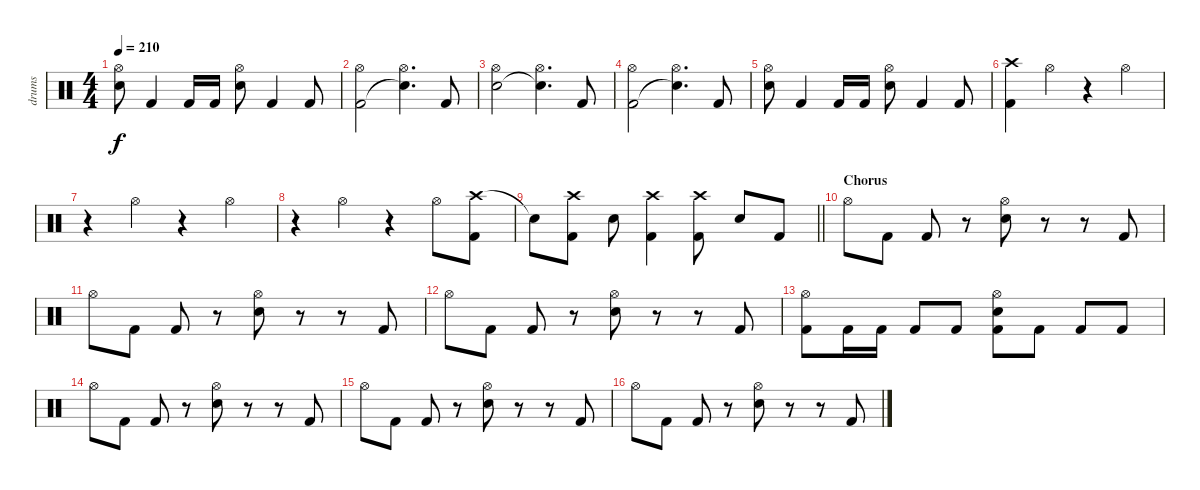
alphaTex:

\track ("drums" "drums") {solo instrument percussion}
\staff {score}
\articulation defaults
\ts (4 4)
\tempo 210
\clef neutral
\ks c
("Hi-Hat (open)" "Electric Snare (hit)").8{dy f} "Kick (hit) 2".4 "Kick (hit) 2".16 "Kick (hit) 2".16 ("Hi-Hat (open)" "Electric Snare (hit)").8 "Kick (hit) 2".4 "Kick (hit) 2".8 |
("Hi-Hat (open)" "Kick (hit) 2").2 ("Hi-Hat (open)" "Snare (hit)"{t}).4{d} "Kick (hit) 2".8 |
("Hi-Hat (open)" "Electric Snare (hit)").2 ("Hi-Hat (open)" "Snare (hit)"{t}).4{d} "Kick (hit) 2".8 |
("Hi-Hat (open)" "Kick (hit) 2").2 ("Hi-Hat (open)" "Snare (hit)"{t}).4{d} "Kick (hit) 2".8 |
("Hi-Hat (open)" "Electric Snare (hit)").8 "Kick (hit) 2".4 "Kick (hit) 2".16 "Kick (hit) 2".16 ("Hi-Hat (open)" "Electric Snare (hit)").8 "Kick (hit) 2".4 "Kick (hit) 2".8 |
("Crash high (hit)" "Kick (hit) 2").4 "Hi-Hat (open)".4 r.4 "Hi-Hat (open)".4 |
r.4 "Hi-Hat (open)".4 r.4 "Hi-Hat (open)".4 |
r.4 "Hi-Hat (open)".4 r.4 "Hi-Hat (open)".8 ("Crash high (hit)" "Kick (hit) 2").8 |
\barLineRight lightlight "Snare (hit)"{t}.8
("Crash high (hit)" "Kick (hit) 2").8 "Electric Snare (hit)".8 ("Crash high (hit)" "Kick (hit) 2").4 ("Crash high (hit)" "Kick (hit) 2").8 "Electric Snare (hit)".8 "Kick (hit) 2".8 |
\section ("" "Chorus")
"Hi-Hat (open)".8 "Kick (hit) 2".8 "Kick (hit) 2".8 r.8 ("Hi-Hat (open)" "Electric Snare (hit)").8 r.8 r.8 "Kick (hit) 2".8 |
"Hi-Hat (open)".8 "Kick (hit) 2".8 "Kick (hit) 2".8 r.8 ("Hi-Hat (open)" "Electric Snare (hit)").8 r.8 r.8 "Kick (hit) 2".8 |
"Hi-Hat (open)".8 "Kick (hit) 2".8 "Kick (hit) 2".8 r.8 ("Hi-Hat (open)" "Electric Snare (hit)").8 r.8 r.8 "Kick (hit) 2".8 |
("Hi-Hat (open)" "Kick (hit) 2").8 "Kick (hit) 2".16 "Kick (hit) 2".16 "Kick (hit) 2".8 "Kick (hit) 2".8 ("Hi-Hat (open)" "Electric Snare (hit)" "Kick (hit) 2").8 "Kick (hit) 2".8 "Kick (hit) 2".8 "Kick (hit) 2".8 |
"Hi-Hat (open)".8 "Kick (hit) 2".8 "Kick (hit) 2".8 r.8 ("Hi-Hat (open)" "Electric Snare (hit)").8 r.8 r.8 "Kick (hit) 2".8 |
"Hi-Hat (open)".8 "Kick (hit) 2".8 "Kick (hit) 2".8 r.8 ("Hi-Hat (open)" "Electric Snare (hit)").8 r.8 r.8 "Kick (hit) 2".8 |
"Hi-Hat (open)".8 "Kick (hit) 2".8 "Kick (hit) 2".8 r.8 ("Hi-Hat (open)" "Electric Snare (hit)").8 r.8 r.8 "Kick (hit) 2".8
